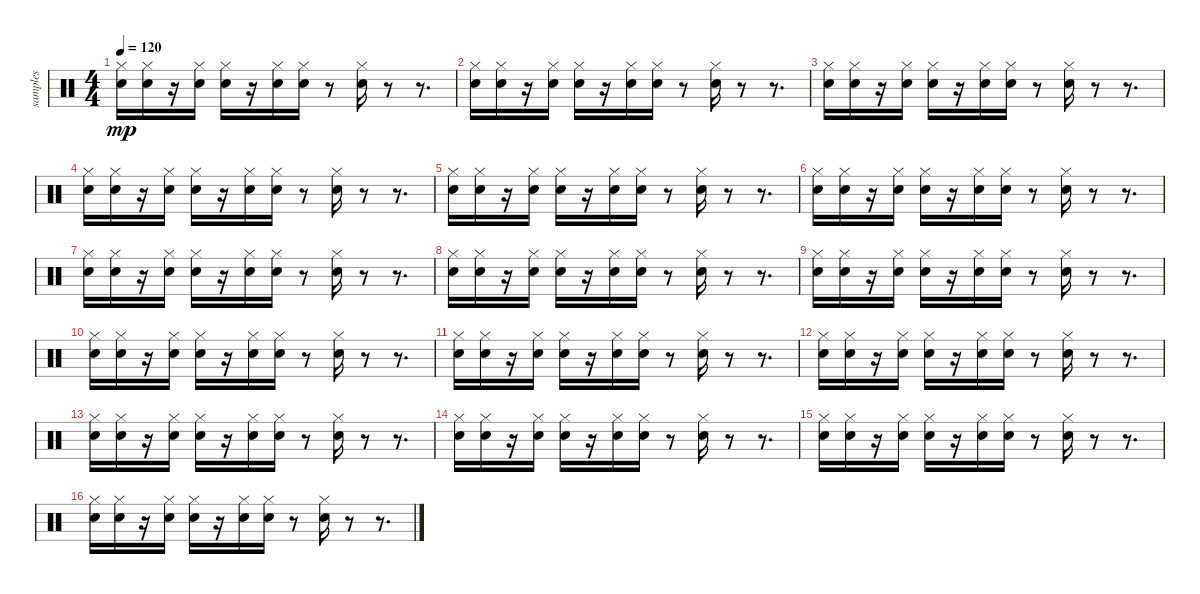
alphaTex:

\track ("samples" "samples") {instrument percussion}
\staff {score}
\articulation defaults
\ts (4 4)
\tempo 120
\clef neutral
\ks c
("Hi-Hat (closed)" "Snare (hit) 2").16{dy mp} ("Hi-Hat (closed)" "Snare (hit) 2").16 r.16 ("Hi-Hat (closed)" "Snare (hit) 2").16 ("Hi-Hat (closed)" "Snare (hit) 2").16 r.16 ("Hi-Hat (closed)" "Snare (hit) 2").16 ("Hi-Hat (closed)" "Snare (hit) 2").16 r.8 ("Hi-Hat (closed)" "Snare (hit) 2").16 r.8 r.8{d} |
("Hi-Hat (closed)" "Snare (hit) 2").16 ("Hi-Hat (closed)" "Snare (hit) 2").16 r.16 ("Hi-Hat (closed)" "Snare (hit) 2").16 ("Hi-Hat (closed)" "Snare (hit) 2").16 r.16 ("Hi-Hat (closed)" "Snare (hit) 2").16 ("Hi-Hat (closed)" "Snare (hit) 2").16 r.8 ("Hi-Hat (closed)" "Snare (hit) 2").16 r.8 r.8{d} |
("Hi-Hat (closed)" "Snare (hit) 2").16 ("Hi-Hat (closed)" "Snare (hit) 2").16 r.16 ("Hi-Hat (closed)" "Snare (hit) 2").16 ("Hi-Hat (closed)" "Snare (hit) 2").16 r.16 ("Hi-Hat (closed)" "Snare (hit) 2").16 ("Hi-Hat (closed)" "Snare (hit) 2").16 r.8 ("Hi-Hat (closed)" "Snare (hit) 2").16 r.8 r.8{d} |
("Hi-Hat (closed)" "Snare (hit) 2").16{volume 12} ("Hi-Hat (closed)" "Snare (hit) 2").16 r.16 ("Hi-Hat (closed)" "Snare (hit) 2").16 ("Hi-Hat (closed)" "Snare (hit) 2").16 r.16 ("Hi-Hat (closed)" "Snare (hit) 2").16 ("Hi-Hat (closed)" "Snare (hit) 2").16 r.8 ("Hi-Hat (closed)" "Snare (hit) 2").16 r.8 r.8{d} |
("Hi-Hat (closed)" "Snare (hit) 2").16 ("Hi-Hat (closed)" "Snare (hit) 2").16 r.16 ("Hi-Hat (closed)" "Snare (hit) 2").16 ("Hi-Hat (closed)" "Snare (hit) 2").16 r.16 ("Hi-Hat (closed)" "Snare (hit) 2").16 ("Hi-Hat (closed)" "Snare (hit) 2").16 r.8 ("Hi-Hat (closed)" "Snare (hit) 2").16 r.8 r.8{d} |
("Hi-Hat (closed)" "Snare (hit) 2").16 ("Hi-Hat (closed)" "Snare (hit) 2").16 r.16 ("Hi-Hat (closed)" "Snare (hit) 2").16 ("Hi-Hat (closed)" "Snare (hit) 2").16 r.16 ("Hi-Hat (closed)" "Snare (hit) 2").16 ("Hi-Hat (closed)" "Snare (hit) 2").16 r.8 ("Hi-Hat (closed)" "Snare (hit) 2").16 r.8 r.8{d} |
("Hi-Hat (closed)" "Snare (hit) 2").16 ("Hi-Hat (closed)" "Snare (hit) 2").16 r.16 ("Hi-Hat (closed)" "Snare (hit) 2").16 ("Hi-Hat (closed)" "Snare (hit) 2").16 r.16 ("Hi-Hat (closed)" "Snare (hit) 2").16 ("Hi-Hat (closed)" "Snare (hit) 2").16 r.8 ("Hi-Hat (closed)" "Snare (hit) 2").16 r.8 r.8{d} |
("Hi-Hat (closed)" "Snare (hit) 2").16{volume 10} ("Hi-Hat (closed)" "Snare (hit) 2").16 r.16 ("Hi-Hat (closed)" "Snare (hit) 2").16 ("Hi-Hat (closed)" "Snare (hit) 2").16 r.16 ("Hi-Hat (closed)" "Snare (hit) 2").16 ("Hi-Hat (closed)" "Snare (hit) 2").16 r.8 ("Hi-Hat (closed)" "Snare (hit) 2").16 r.8 r.8{d} |
("Hi-Hat (closed)" "Snare (hit) 2").16 ("Hi-Hat (closed)" "Snare (hit) 2").16 r.16 ("Hi-Hat (closed)" "Snare (hit) 2").16 ("Hi-Hat (closed)" "Snare (hit) 2").16 r.16 ("Hi-Hat (closed)" "Snare (hit) 2").16 ("Hi-Hat (closed)" "Snare (hit) 2").16 r.8 ("Hi-Hat (closed)" "Snare (hit) 2").16 r.8 r.8{d} |
("Hi-Hat (closed)" "Snare (hit) 2").16 ("Hi-Hat (closed)" "Snare (hit) 2").16 r.16 ("Hi-Hat (closed)" "Snare (hit) 2").16 ("Hi-Hat (closed)" "Snare (hit) 2").16 r.16 ("Hi-Hat (closed)" "Snare (hit) 2").16 ("Hi-Hat (closed)" "Snare (hit) 2").16 r.8 ("Hi-Hat (closed)" "Snare (hit) 2").16 r.8 r.8{d} |
("Hi-Hat (closed)" "Snare (hit) 2").16 ("Hi-Hat (closed)" "Snare (hit) 2").16 r.16 ("Hi-Hat (closed)" "Snare (hit) 2").16 ("Hi-Hat (closed)" "Snare (hit) 2").16 r.16 ("Hi-Hat (closed)" "Snare (hit) 2").16 ("Hi-Hat (closed)" "Snare (hit) 2").16 r.8 ("Hi-Hat (closed)" "Snare (hit) 2").16 r.8 r.8{d} |
("Hi-Hat (closed)" "Snare (hit) 2").16{volume 10} ("Hi-Hat (closed)" "Snare (hit) 2").16 r.16 ("Hi-Hat (closed)" "Snare (hit) 2").16 ("Hi-Hat (closed)" "Snare (hit) 2").16 r.16 ("Hi-Hat (closed)" "Snare (hit) 2").16 ("Hi-Hat (closed)" "Snare (hit) 2").16 r.8 ("Hi-Hat (closed)" "Snare (hit) 2").16 r.8 r.8{d} |
("Hi-Hat (closed)" "Snare (hit) 2").16 ("Hi-Hat (closed)" "Snare (hit) 2").16 r.16 ("Hi-Hat (closed)" "Snare (hit) 2").16 ("Hi-Hat (closed)" "Snare (hit) 2").16 r.16 ("Hi-Hat (closed)" "Snare (hit) 2").16 ("Hi-Hat (closed)" "Snare (hit) 2").16 r.8 ("Hi-Hat (closed)" "Snare (hit) 2").16 r.8 r.8{d} |
("Hi-Hat (closed)" "Snare (hit) 2").16 ("Hi-Hat (closed)" "Snare (hit) 2").16 r.16 ("Hi-Hat (closed)" "Snare (hit) 2").16 ("Hi-Hat (closed)" "Snare (hit) 2").16 r.16 ("Hi-Hat (closed)" "Snare (hit) 2").16 ("Hi-Hat (closed)" "Snare (hit) 2").16 r.8 ("Hi-Hat (closed)" "Snare (hit) 2").16 r.8 r.8{d} |
("Hi-Hat (closed)" "Snare (hit) 2").16 ("Hi-Hat (closed)" "Snare (hit) 2").16 r.16 ("Hi-Hat (closed)" "Snare (hit) 2").16 ("Hi-Hat (closed)" "Snare (hit) 2").16 r.16 ("Hi-Hat (closed)" "Snare (hit) 2").16 ("Hi-Hat (closed)" "Snare (hit) 2").16 r.8 ("Hi-Hat (closed)" "Snare (hit) 2").16 r.8 r.8{d} |
("Hi-Hat (closed)" "Snare (hit) 2").16 ("Hi-Hat (closed)" "Snare (hit) 2").16 r.16 ("Hi-Hat (closed)" "Snare (hit) 2").16 ("Hi-Hat (closed)" "Snare (hit) 2").16 r.16 ("Hi-Hat (closed)" "Snare (hit) 2").16 ("Hi-Hat (closed)" "Snare (hit) 2").16 r.8 ("Hi-Hat (closed)" "Snare (hit) 2").16 r.8 r.8{d}
